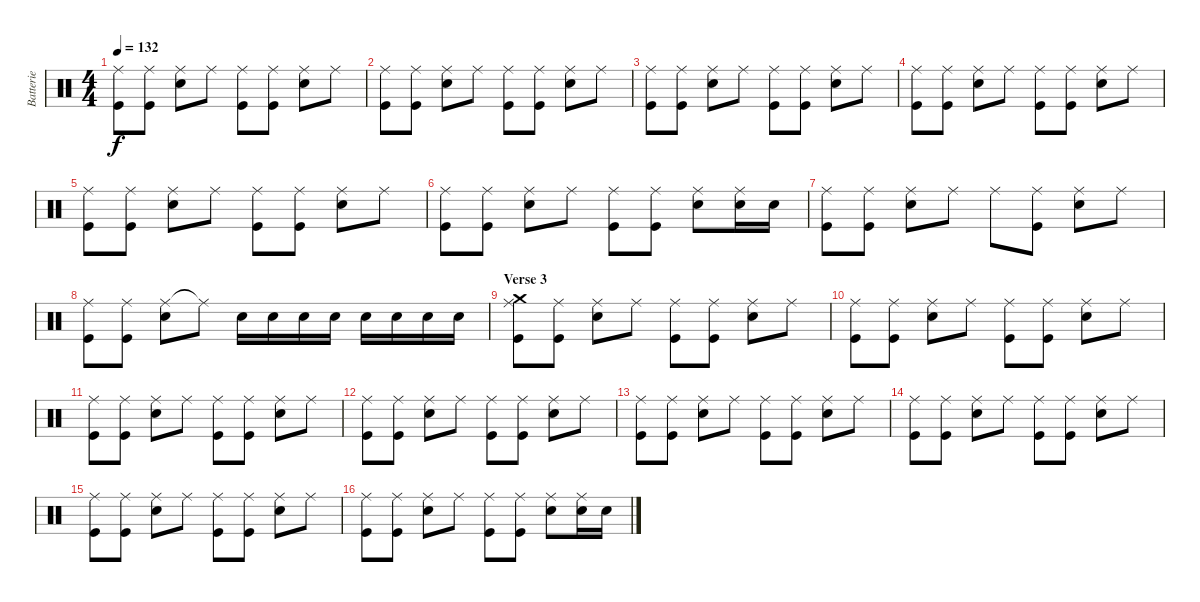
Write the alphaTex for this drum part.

\track ("Batterie" "Batterie") {instrument percussion}
\staff {score}
\articulation defaults
\ts (4 4)
\tempo 132
\clef neutral
\ks c
("Ride (middle)" "Kick (hit)").8{dy f} ("Ride (middle)" "Kick (hit)").8 ("Ride (middle)" "Snare (hit) 2").8 "Ride (middle)".8 ("Ride (middle)" "Kick (hit)").8 ("Ride (middle)" "Kick (hit)").8 ("Ride (middle)" "Snare (hit) 2").8 "Ride (middle)".8 |
("Ride (middle)" "Kick (hit)").8 ("Ride (middle)" "Kick (hit)").8 ("Ride (middle)" "Snare (hit) 2").8 "Ride (middle)".8 ("Ride (middle)" "Kick (hit)").8 ("Ride (middle)" "Kick (hit)").8 ("Ride (middle)" "Snare (hit) 2").8 "Ride (middle)".8 |
("Ride (middle)" "Kick (hit)").8 ("Ride (middle)" "Kick (hit)").8 ("Ride (middle)" "Snare (hit) 2").8 "Ride (middle)".8 ("Ride (middle)" "Kick (hit)").8 ("Ride (middle)" "Kick (hit)").8 ("Ride (middle)" "Snare (hit) 2").8 "Ride (middle)".8 |
("Ride (middle)" "Kick (hit)").8 ("Ride (middle)" "Kick (hit)").8 ("Ride (middle)" "Snare (hit) 2").8 "Ride (middle)".8 ("Ride (middle)" "Kick (hit)").8 ("Ride (middle)" "Kick (hit)").8 ("Ride (middle)" "Snare (hit) 2").8 "Ride (middle)".8 |
("Ride (middle)" "Kick (hit)").8 ("Ride (middle)" "Kick (hit)").8 ("Ride (middle)" "Snare (hit) 2").8 "Ride (middle)".8 ("Ride (middle)" "Kick (hit)").8 ("Ride (middle)" "Kick (hit)").8 ("Ride (middle)" "Snare (hit) 2").8 "Ride (middle)".8 |
("Ride (middle)" "Kick (hit)").8 ("Ride (middle)" "Kick (hit)").8 ("Ride (middle)" "Snare (hit) 2").8 "Ride (middle)".8 ("Ride (middle)" "Kick (hit)").8 ("Ride (middle)" "Kick (hit)").8 ("Ride (middle)" "Snare (hit) 2").8 ("Ride (middle)" "Snare (hit) 2").16 "Snare (hit) 2".16 |
("Ride (middle)" "Kick (hit)").8 ("Ride (middle)" "Kick (hit)").8 ("Ride (middle)" "Snare (hit) 2").8 "Ride (middle)".8 "Ride (middle)".8 ("Ride (middle)" "Kick (hit)").8 ("Ride (middle)" "Snare (hit) 2").8 "Ride (middle)".8 |
("Ride (middle)" "Kick (hit)").8 ("Ride (middle)" "Kick (hit)").8 ("Ride (middle)" "Snare (hit) 2").8 "Ride (middle)"{t}.8 "Snare (hit) 2".16 "Snare (hit) 2".16 "Snare (hit) 2".16 "Snare (hit) 2".16 "Snare (hit) 2".16 "Snare (hit) 2".16 "Snare (hit) 2".16 "Snare (hit) 2".16 |
\section ("" "Verse 3")
("Ride (middle)" "Crash medium (hit)" "Kick (hit)").8 ("Ride (middle)" "Kick (hit)").8 ("Ride (middle)" "Snare (hit) 2").8 "Ride (middle)".8 ("Ride (middle)" "Kick (hit)").8 ("Ride (middle)" "Kick (hit)").8 ("Ride (middle)" "Snare (hit) 2").8 "Ride (middle)".8 |
("Ride (middle)" "Kick (hit)").8 ("Ride (middle)" "Kick (hit)").8 ("Ride (middle)" "Snare (hit) 2").8 "Ride (middle)".8 ("Ride (middle)" "Kick (hit)").8 ("Ride (middle)" "Kick (hit)").8 ("Ride (middle)" "Snare (hit) 2").8 "Ride (middle)".8 |
("Ride (middle)" "Kick (hit)").8 ("Ride (middle)" "Kick (hit)").8 ("Ride (middle)" "Snare (hit) 2").8 "Ride (middle)".8 ("Ride (middle)" "Kick (hit)").8 ("Ride (middle)" "Kick (hit)").8 ("Ride (middle)" "Snare (hit) 2").8 "Ride (middle)".8 |
("Ride (middle)" "Kick (hit)").8 ("Ride (middle)" "Kick (hit)").8 ("Ride (middle)" "Snare (hit) 2").8 "Ride (middle)".8 ("Ride (middle)" "Kick (hit)").8 ("Ride (middle)" "Kick (hit)").8 ("Ride (middle)" "Snare (hit) 2").8 "Ride (middle)".8 |
("Ride (middle)" "Kick (hit)").8 ("Ride (middle)" "Kick (hit)").8 ("Ride (middle)" "Snare (hit) 2").8 "Ride (middle)".8 ("Ride (middle)" "Kick (hit)").8 ("Ride (middle)" "Kick (hit)").8 ("Ride (middle)" "Snare (hit) 2").8 "Ride (middle)".8 |
("Ride (middle)" "Kick (hit)").8 ("Ride (middle)" "Kick (hit)").8 ("Ride (middle)" "Snare (hit) 2").8 "Ride (middle)".8 ("Ride (middle)" "Kick (hit)").8 ("Ride (middle)" "Kick (hit)").8 ("Ride (middle)" "Snare (hit) 2").8 "Ride (middle)".8 |
("Ride (middle)" "Kick (hit)").8 ("Ride (middle)" "Kick (hit)").8 ("Ride (middle)" "Snare (hit) 2").8 "Ride (middle)".8 ("Ride (middle)" "Kick (hit)").8 ("Ride (middle)" "Kick (hit)").8 ("Ride (middle)" "Snare (hit) 2").8 "Ride (middle)".8 |
("Ride (middle)" "Kick (hit)").8 ("Ride (middle)" "Kick (hit)").8 ("Ride (middle)" "Snare (hit) 2").8 "Ride (middle)".8 ("Ride (middle)" "Kick (hit)").8 ("Ride (middle)" "Kick (hit)").8 ("Ride (middle)" "Snare (hit) 2").8 ("Ride (middle)" "Snare (hit) 2").16 "Snare (hit) 2".16
